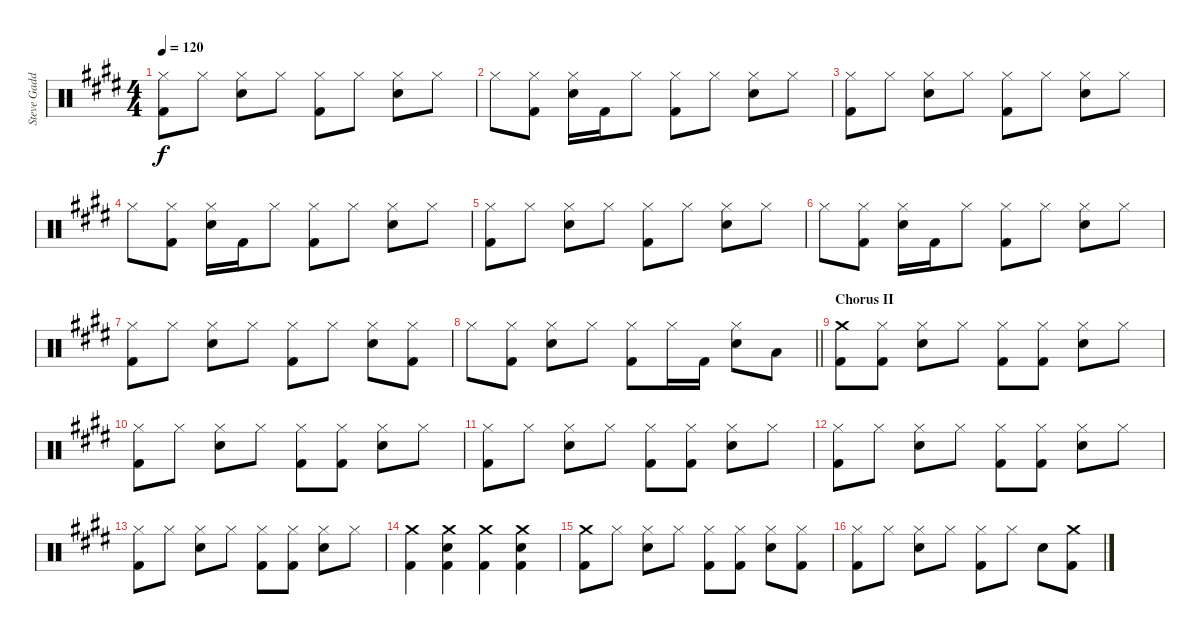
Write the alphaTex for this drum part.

\track ("Steve Gadd Drums" "Steve Gadd") {instrument percussion}
\staff {score}
\articulation defaults
\ts (4 4)
\tempo 120
\clef neutral
\ks e
("Hi-Hat (closed)" "Kick (hit) 2").8{dy f} "Hi-Hat (closed)".8 ("Hi-Hat (closed)" "Snare (hit) 2").8 "Hi-Hat (closed)".8 ("Hi-Hat (closed)" "Kick (hit) 2").8 "Hi-Hat (closed)".8 ("Hi-Hat (closed)" "Snare (hit) 2").8 "Hi-Hat (closed)".8 |
"Hi-Hat (closed)".8 ("Hi-Hat (closed)" "Kick (hit) 2").8 ("Hi-Hat (closed)" "Snare (hit) 2").16 "Kick (hit) 2".16 "Hi-Hat (closed)".8 ("Hi-Hat (closed)" "Kick (hit) 2").8 "Hi-Hat (closed)".8 ("Hi-Hat (closed)" "Snare (hit) 2").8 "Hi-Hat (closed)".8 |
("Hi-Hat (closed)" "Kick (hit) 2").8 "Hi-Hat (closed)".8 ("Hi-Hat (closed)" "Snare (hit) 2").8 "Hi-Hat (closed)".8 ("Hi-Hat (closed)" "Kick (hit) 2").8 "Hi-Hat (closed)".8 ("Hi-Hat (closed)" "Snare (hit) 2").8 "Hi-Hat (closed)".8 |
"Hi-Hat (closed)".8 ("Hi-Hat (closed)" "Kick (hit) 2").8 ("Hi-Hat (closed)" "Snare (hit) 2").16 "Kick (hit) 2".16 "Hi-Hat (closed)".8 ("Hi-Hat (closed)" "Kick (hit) 2").8 "Hi-Hat (closed)".8 ("Hi-Hat (closed)" "Snare (hit) 2").8 "Hi-Hat (closed)".8 |
("Hi-Hat (closed)" "Kick (hit) 2").8 "Hi-Hat (closed)".8 ("Hi-Hat (closed)" "Snare (hit) 2").8 "Hi-Hat (closed)".8 ("Hi-Hat (closed)" "Kick (hit) 2").8 "Hi-Hat (closed)".8 ("Hi-Hat (closed)" "Snare (hit) 2").8 "Hi-Hat (closed)".8 |
"Hi-Hat (closed)".8 ("Hi-Hat (closed)" "Kick (hit) 2").8 ("Hi-Hat (closed)" "Snare (hit) 2").16 "Kick (hit) 2".16 "Hi-Hat (closed)".8 ("Hi-Hat (closed)" "Kick (hit) 2").8 "Hi-Hat (closed)".8 ("Hi-Hat (closed)" "Snare (hit) 2").8 "Hi-Hat (closed)".8 |
("Hi-Hat (closed)" "Kick (hit) 2").8 "Hi-Hat (closed)".8 ("Hi-Hat (closed)" "Snare (hit) 2").8 "Hi-Hat (closed)".8 ("Hi-Hat (closed)" "Kick (hit) 2").8 "Hi-Hat (closed)".8 ("Hi-Hat (closed)" "Snare (hit) 2").8 ("Hi-Hat (closed)" "Kick (hit) 2").8 |
\barLineRight lightlight "Hi-Hat (closed)".8
("Hi-Hat (closed)" "Kick (hit) 2").8 ("Hi-Hat (closed)" "Snare (hit) 2").8 "Hi-Hat (closed)".8 ("Hi-Hat (closed)" "Kick (hit) 2").8 "Hi-Hat (closed)".16 "Kick (hit) 2".16 ("Hi-Hat (closed)" "Snare (hit) 2").8 "Low Tom (hit)".8 |
\section ("" "Chorus II")
("Crash medium (hit)" "Kick (hit) 2").8 ("Hi-Hat (closed)" "Kick (hit) 2").8 ("Hi-Hat (closed)" "Snare (hit) 2").8 "Hi-Hat (closed)".8 ("Hi-Hat (closed)" "Kick (hit) 2").8 ("Hi-Hat (closed)" "Kick (hit) 2").8 ("Hi-Hat (closed)" "Snare (hit) 2").8 "Hi-Hat (closed)".8 |
("Hi-Hat (closed)" "Kick (hit) 2").8 "Hi-Hat (closed)".8 ("Hi-Hat (closed)" "Snare (hit) 2").8 "Hi-Hat (closed)".8 ("Hi-Hat (closed)" "Kick (hit) 2").8 ("Hi-Hat (closed)" "Kick (hit) 2").8 ("Hi-Hat (closed)" "Snare (hit) 2").8 "Hi-Hat (closed)".8 |
("Hi-Hat (closed)" "Kick (hit) 2").8 "Hi-Hat (closed)".8 ("Hi-Hat (closed)" "Snare (hit) 2").8 "Hi-Hat (closed)".8 ("Hi-Hat (closed)" "Kick (hit) 2").8 ("Hi-Hat (closed)" "Kick (hit) 2").8 ("Hi-Hat (closed)" "Snare (hit) 2").8 "Hi-Hat (closed)".8 |
("Hi-Hat (closed)" "Kick (hit) 2").8 "Hi-Hat (closed)".8 ("Hi-Hat (closed)" "Snare (hit) 2").8 "Hi-Hat (closed)".8 ("Hi-Hat (closed)" "Kick (hit) 2").8 ("Hi-Hat (closed)" "Kick (hit) 2").8 ("Hi-Hat (closed)" "Snare (hit) 2").8 "Hi-Hat (closed)".8 |
("Hi-Hat (closed)" "Kick (hit) 2").8 "Hi-Hat (closed)".8 ("Hi-Hat (closed)" "Snare (hit) 2").8 "Hi-Hat (closed)".8 ("Hi-Hat (closed)" "Kick (hit) 2").8 ("Hi-Hat (closed)" "Kick (hit) 2").8 ("Hi-Hat (closed)" "Snare (hit) 2").8 "Hi-Hat (closed)".8 |
("Crash medium (hit)" "Kick (hit) 2").4 ("Crash medium (hit)" "Kick (hit) 2" "Snare (hit) 2").4 ("Crash medium (hit)" "Kick (hit) 2").4 ("Crash medium (hit)" "Kick (hit) 2" "Snare (hit) 2").4 |
("Crash medium (hit)" "Kick (hit) 2").8 "Hi-Hat (closed)".8 ("Hi-Hat (closed)" "Snare (hit) 2").8 "Hi-Hat (closed)".8 ("Hi-Hat (closed)" "Kick (hit) 2").8 ("Hi-Hat (closed)" "Kick (hit) 2").8 ("Hi-Hat (closed)" "Snare (hit) 2").8 ("Hi-Hat (closed)" "Kick (hit) 2").8 |
("Hi-Hat (closed)" "Kick (hit) 2").8 "Hi-Hat (closed)".8 ("Hi-Hat (closed)" "Snare (hit) 2").8 "Hi-Hat (closed)".8 ("Hi-Hat (closed)" "Kick (hit) 2").8 "Hi-Hat (closed)".8 "Snare (hit) 2".8 ("Crash medium (hit)" "Kick (hit) 2").8
